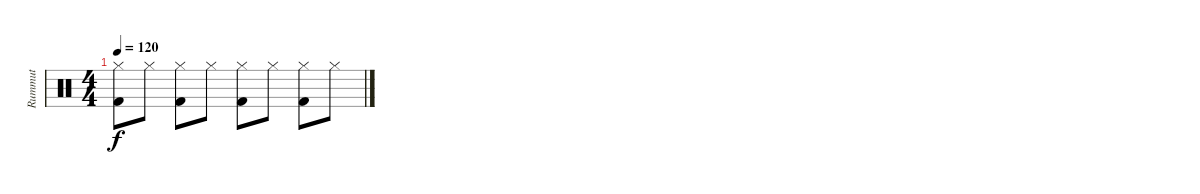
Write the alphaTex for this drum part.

\track ("Rummut" "Rummut") {instrument percussion}
\staff {score}
\articulation defaults
\ts (4 4)
\tempo 120
\clef neutral
\ks c
("Hi-Hat (closed)" "Kick (hit) 2").8{dy f} "Hi-Hat (closed)".8 ("Hi-Hat (closed)" "Kick (hit) 2").8 "Hi-Hat (closed)".8 ("Hi-Hat (closed)" "Kick (hit) 2").8 "Hi-Hat (closed)".8 ("Hi-Hat (closed)" "Kick (hit) 2").8 "Hi-Hat (closed)".8
